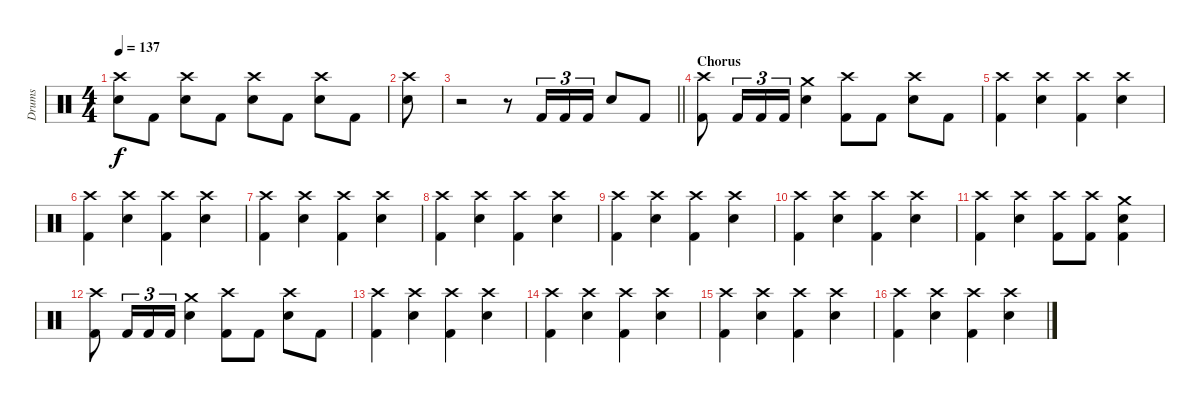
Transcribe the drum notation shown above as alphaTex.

\track ("Drums" "Drums") {instrument percussion}
\staff {score}
\articulation defaults
\ts (4 4)
\tempo 137
\clef neutral
\ks c
("Crash high (hit)" "Electric Snare (hit)").8{dy f} "Kick (hit) 2".8 ("Crash high (hit)" "Electric Snare (hit)").8 "Kick (hit) 2".8 ("Crash high (hit)" "Electric Snare (hit)").8 "Kick (hit) 2".8 ("Crash high (hit)" "Electric Snare (hit)").8 "Kick (hit) 2".8 |
("Crash high (hit)" "Electric Snare (hit)").8 |
\barLineRight lightlight
r.2 r.8 "Kick (hit) 2".16{tu (3 2)} "Kick (hit) 2".16{tu (3 2)} "Kick (hit) 2".16{tu (3 2)} "Electric Snare (hit)".8 "Kick (hit) 2".8 |
\section ("" "Chorus")
("Crash high (hit)" "Kick (hit) 2").8 "Kick (hit) 2".16{tu (3 2)} "Kick (hit) 2".16{tu (3 2)} "Kick (hit) 2".16{tu (3 2)} ("Crash medium (hit)" "Electric Snare (hit)").4 ("Crash high (hit)" "Kick (hit) 2").8 "Kick (hit) 2".8 ("Crash high (hit)" "Electric Snare (hit)").8 "Kick (hit) 2".8 |
("Crash high (hit)" "Kick (hit) 2").4 ("Crash high (hit)" "Electric Snare (hit)").4 ("Crash high (hit)" "Kick (hit) 2").4 ("Crash high (hit)" "Electric Snare (hit)").4 |
("Crash high (hit)" "Kick (hit) 2").4 ("Crash high (hit)" "Electric Snare (hit)").4 ("Crash high (hit)" "Kick (hit) 2").4 ("Crash high (hit)" "Electric Snare (hit)").4 |
("Crash high (hit)" "Kick (hit) 2").4 ("Crash high (hit)" "Electric Snare (hit)").4 ("Crash high (hit)" "Kick (hit) 2").4 ("Crash high (hit)" "Electric Snare (hit)").4 |
("Crash high (hit)" "Kick (hit) 2").4 ("Crash high (hit)" "Electric Snare (hit)").4 ("Crash high (hit)" "Kick (hit) 2").4 ("Crash high (hit)" "Electric Snare (hit)").4 |
("Crash high (hit)" "Kick (hit) 2").4 ("Crash high (hit)" "Electric Snare (hit)").4 ("Crash high (hit)" "Kick (hit) 2").4 ("Crash high (hit)" "Electric Snare (hit)").4 |
("Crash high (hit)" "Kick (hit) 2").4 ("Crash high (hit)" "Electric Snare (hit)").4 ("Crash high (hit)" "Kick (hit) 2").4 ("Crash high (hit)" "Electric Snare (hit)").4 |
("Crash high (hit)" "Kick (hit) 2").4 ("Crash high (hit)" "Electric Snare (hit)").4 ("Crash high (hit)" "Kick (hit) 2").8 ("Crash high (hit)" "Kick (hit) 2").8 ("Crash medium (hit)" "Kick (hit) 2" "Electric Snare (hit)").4 |
("Crash high (hit)" "Kick (hit) 2").8 "Kick (hit) 2".16{tu (3 2)} "Kick (hit) 2".16{tu (3 2)} "Kick (hit) 2".16{tu (3 2)} ("Crash medium (hit)" "Electric Snare (hit)").4 ("Crash high (hit)" "Kick (hit) 2").8 "Kick (hit) 2".8 ("Crash high (hit)" "Electric Snare (hit)").8 "Kick (hit) 2".8 |
("Crash high (hit)" "Kick (hit) 2").4 ("Crash high (hit)" "Electric Snare (hit)").4 ("Crash high (hit)" "Kick (hit) 2").4 ("Crash high (hit)" "Electric Snare (hit)").4 |
("Crash high (hit)" "Kick (hit) 2").4 ("Crash high (hit)" "Electric Snare (hit)").4 ("Crash high (hit)" "Kick (hit) 2").4 ("Crash high (hit)" "Electric Snare (hit)").4 |
("Crash high (hit)" "Kick (hit) 2").4 ("Crash high (hit)" "Electric Snare (hit)").4 ("Crash high (hit)" "Kick (hit) 2").4 ("Crash high (hit)" "Electric Snare (hit)").4 |
("Crash high (hit)" "Kick (hit) 2").4 ("Crash high (hit)" "Electric Snare (hit)").4 ("Crash high (hit)" "Kick (hit) 2").4 ("Crash high (hit)" "Electric Snare (hit)").4
